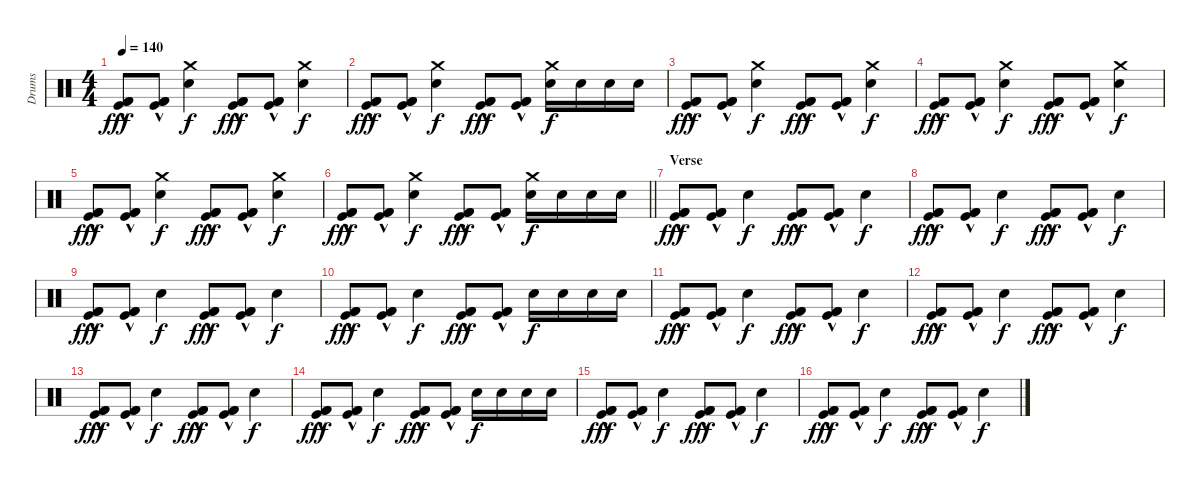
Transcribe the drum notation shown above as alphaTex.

\track ("Drums" "Drums") {instrument percussion}
\staff {score}
\articulation defaults
\ts (4 4)
\tempo 140
\clef neutral
\ks c
("Kick (hit) 2"{hac} "Kick (hit)"{hac} "Kick (hit) 2"{hac}).8{dy fff} ("Kick (hit) 2"{hac} "Kick (hit)"{hac} "Kick (hit) 2"{hac}).8 ("Snare (hit) 2" "Crash medium (hit)").4{dy f} ("Kick (hit) 2"{hac} "Kick (hit)"{hac} "Kick (hit) 2"{hac}).8{dy fff} ("Kick (hit) 2"{hac} "Kick (hit)"{hac} "Kick (hit) 2"{hac}).8 ("Snare (hit) 2" "Crash medium (hit)").4{dy f} |
("Kick (hit) 2"{hac} "Kick (hit)"{hac} "Kick (hit) 2"{hac}).8{dy fff} ("Kick (hit) 2"{hac} "Kick (hit)"{hac} "Kick (hit) 2"{hac}).8 ("Snare (hit) 2" "Crash medium (hit)").4{dy f} ("Kick (hit) 2"{hac} "Kick (hit)"{hac} "Kick (hit) 2"{hac}).8{dy fff} ("Kick (hit) 2"{hac} "Kick (hit)"{hac} "Kick (hit) 2"{hac}).8 ("Snare (hit) 2" "Crash medium (hit)").16{dy f} "Snare (hit) 2".16 "Snare (hit) 2".16 "Snare (hit) 2".16 |
("Kick (hit) 2"{hac} "Kick (hit)"{hac} "Kick (hit) 2"{hac}).8{dy fff} ("Kick (hit) 2"{hac} "Kick (hit)"{hac} "Kick (hit) 2"{hac}).8 ("Snare (hit) 2" "Crash medium (hit)").4{dy f} ("Kick (hit) 2"{hac} "Kick (hit)"{hac} "Kick (hit) 2"{hac}).8{dy fff} ("Kick (hit) 2"{hac} "Kick (hit)"{hac} "Kick (hit) 2"{hac}).8 ("Snare (hit) 2" "Crash medium (hit)").4{dy f} |
("Kick (hit) 2"{hac} "Kick (hit)"{hac} "Kick (hit) 2"{hac}).8{dy fff} ("Kick (hit) 2"{hac} "Kick (hit)"{hac} "Kick (hit) 2"{hac}).8 ("Snare (hit) 2" "Crash medium (hit)").4{dy f} ("Kick (hit) 2"{hac} "Kick (hit)"{hac} "Kick (hit) 2"{hac}).8{dy fff} ("Kick (hit) 2"{hac} "Kick (hit)"{hac} "Kick (hit) 2"{hac}).8 ("Snare (hit) 2" "Crash medium (hit)").4{dy f} |
("Kick (hit) 2"{hac} "Kick (hit)"{hac} "Kick (hit) 2"{hac}).8{dy fff} ("Kick (hit) 2"{hac} "Kick (hit)"{hac} "Kick (hit) 2"{hac}).8 ("Snare (hit) 2" "Crash medium (hit)").4{dy f} ("Kick (hit) 2"{hac} "Kick (hit)"{hac} "Kick (hit) 2"{hac}).8{dy fff} ("Kick (hit) 2"{hac} "Kick (hit)"{hac} "Kick (hit) 2"{hac}).8 ("Snare (hit) 2" "Crash medium (hit)").4{dy f} |
\barLineRight lightlight
("Kick (hit) 2"{hac} "Kick (hit)"{hac} "Kick (hit) 2"{hac}).8{dy fff} ("Kick (hit) 2"{hac} "Kick (hit)"{hac} "Kick (hit) 2"{hac}).8 ("Snare (hit) 2" "Crash medium (hit)").4{dy f} ("Kick (hit) 2"{hac} "Kick (hit)"{hac} "Kick (hit) 2"{hac}).8{dy fff} ("Kick (hit) 2"{hac} "Kick (hit)"{hac} "Kick (hit) 2"{hac}).8 ("Snare (hit) 2" "Crash medium (hit)").16{dy f} "Snare (hit) 2".16 "Snare (hit) 2".16 "Snare (hit) 2".16 |
\section ("" "Verse")
("Kick (hit) 2"{hac} "Kick (hit)"{hac} "Kick (hit) 2"{hac}).8{dy fff} ("Kick (hit) 2"{hac} "Kick (hit)"{hac} "Kick (hit) 2"{hac}).8 "Snare (hit) 2".4{dy f} ("Kick (hit) 2"{hac} "Kick (hit)"{hac} "Kick (hit) 2"{hac}).8{dy fff} ("Kick (hit) 2"{hac} "Kick (hit)"{hac} "Kick (hit) 2"{hac}).8 "Snare (hit) 2".4{dy f} |
("Kick (hit) 2"{hac} "Kick (hit)"{hac} "Kick (hit) 2"{hac}).8{dy fff} ("Kick (hit) 2"{hac} "Kick (hit)"{hac} "Kick (hit) 2"{hac}).8 "Snare (hit) 2".4{dy f} ("Kick (hit) 2"{hac} "Kick (hit)"{hac} "Kick (hit) 2"{hac}).8{dy fff} ("Kick (hit) 2"{hac} "Kick (hit)"{hac} "Kick (hit) 2"{hac}).8 "Snare (hit) 2".4{dy f} |
("Kick (hit) 2"{hac} "Kick (hit)"{hac} "Kick (hit) 2"{hac}).8{dy fff} ("Kick (hit) 2"{hac} "Kick (hit)"{hac} "Kick (hit) 2"{hac}).8 "Snare (hit) 2".4{dy f} ("Kick (hit) 2"{hac} "Kick (hit)"{hac} "Kick (hit) 2"{hac}).8{dy fff} ("Kick (hit) 2"{hac} "Kick (hit)"{hac} "Kick (hit) 2"{hac}).8 "Snare (hit) 2".4{dy f} |
("Kick (hit) 2"{hac} "Kick (hit)"{hac} "Kick (hit) 2"{hac}).8{dy fff} ("Kick (hit) 2"{hac} "Kick (hit)"{hac} "Kick (hit) 2"{hac}).8 "Snare (hit) 2".4{dy f} ("Kick (hit) 2"{hac} "Kick (hit)"{hac} "Kick (hit) 2"{hac}).8{dy fff} ("Kick (hit) 2"{hac} "Kick (hit)"{hac} "Kick (hit) 2"{hac}).8 "Snare (hit) 2".16{dy f} "Snare (hit) 2".16 "Snare (hit) 2".16 "Snare (hit) 2".16 |
("Kick (hit) 2"{hac} "Kick (hit)"{hac} "Kick (hit) 2"{hac}).8{dy fff} ("Kick (hit) 2"{hac} "Kick (hit)"{hac} "Kick (hit) 2"{hac}).8 "Snare (hit) 2".4{dy f} ("Kick (hit) 2"{hac} "Kick (hit)"{hac} "Kick (hit) 2"{hac}).8{dy fff} ("Kick (hit) 2"{hac} "Kick (hit)"{hac} "Kick (hit) 2"{hac}).8 "Snare (hit) 2".4{dy f} |
("Kick (hit) 2"{hac} "Kick (hit)"{hac} "Kick (hit) 2"{hac}).8{dy fff} ("Kick (hit) 2"{hac} "Kick (hit)"{hac} "Kick (hit) 2"{hac}).8 "Snare (hit) 2".4{dy f} ("Kick (hit) 2"{hac} "Kick (hit)"{hac} "Kick (hit) 2"{hac}).8{dy fff} ("Kick (hit) 2"{hac} "Kick (hit)"{hac} "Kick (hit) 2"{hac}).8 "Snare (hit) 2".4{dy f} |
("Kick (hit) 2"{hac} "Kick (hit)"{hac} "Kick (hit) 2"{hac}).8{dy fff} ("Kick (hit) 2"{hac} "Kick (hit)"{hac} "Kick (hit) 2"{hac}).8 "Snare (hit) 2".4{dy f} ("Kick (hit) 2"{hac} "Kick (hit)"{hac} "Kick (hit) 2"{hac}).8{dy fff} ("Kick (hit) 2"{hac} "Kick (hit)"{hac} "Kick (hit) 2"{hac}).8 "Snare (hit) 2".4{dy f} |
("Kick (hit) 2"{hac} "Kick (hit)"{hac} "Kick (hit) 2"{hac}).8{dy fff} ("Kick (hit) 2"{hac} "Kick (hit)"{hac} "Kick (hit) 2"{hac}).8 "Snare (hit) 2".4{dy f} ("Kick (hit) 2"{hac} "Kick (hit)"{hac} "Kick (hit) 2"{hac}).8{dy fff} ("Kick (hit) 2"{hac} "Kick (hit)"{hac} "Kick (hit) 2"{hac}).8 "Snare (hit) 2".16{dy f} "Snare (hit) 2".16 "Snare (hit) 2".16 "Snare (hit) 2".16 |
("Kick (hit) 2"{hac} "Kick (hit)"{hac} "Kick (hit) 2"{hac}).8{dy fff} ("Kick (hit) 2"{hac} "Kick (hit)"{hac} "Kick (hit) 2"{hac}).8 "Snare (hit) 2".4{dy f} ("Kick (hit) 2"{hac} "Kick (hit)"{hac} "Kick (hit) 2"{hac}).8{dy fff} ("Kick (hit) 2"{hac} "Kick (hit)"{hac} "Kick (hit) 2"{hac}).8 "Snare (hit) 2".4{dy f} |
("Kick (hit) 2"{hac} "Kick (hit)"{hac} "Kick (hit) 2"{hac}).8{dy fff} ("Kick (hit) 2"{hac} "Kick (hit)"{hac} "Kick (hit) 2"{hac}).8 "Snare (hit) 2".4{dy f} ("Kick (hit) 2"{hac} "Kick (hit)"{hac} "Kick (hit) 2"{hac}).8{dy fff} ("Kick (hit) 2"{hac} "Kick (hit)"{hac} "Kick (hit) 2"{hac}).8 "Snare (hit) 2".4{dy f}
